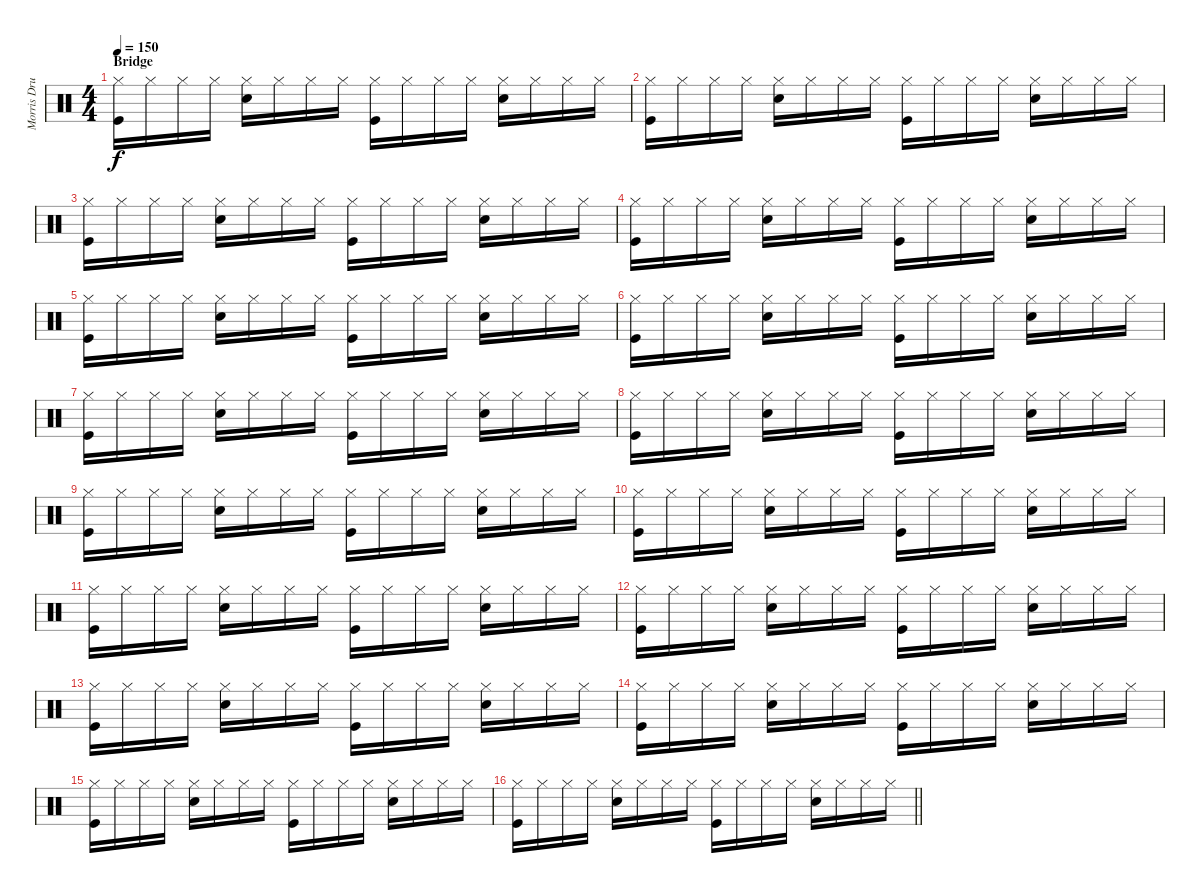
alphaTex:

\track ("Morris Drums" "Morris Dru") {instrument percussion}
\staff {score}
\articulation defaults
\ts (4 4)
\section ("" "Bridge")
\tempo 150
\clef neutral
\ks c
("Hi-Hat (closed)" "Kick (hit)").16{dy f} "Hi-Hat (closed)".16 "Hi-Hat (closed)".16 "Hi-Hat (closed)".16 ("Hi-Hat (closed)" "Snare (hit) 2").16 "Hi-Hat (closed)".16 "Hi-Hat (closed)".16 "Hi-Hat (closed)".16 ("Hi-Hat (closed)" "Kick (hit)").16 "Hi-Hat (closed)".16 "Hi-Hat (closed)".16 "Hi-Hat (closed)".16 ("Hi-Hat (closed)" "Snare (hit) 2").16 "Hi-Hat (closed)".16 "Hi-Hat (closed)".16 "Hi-Hat (closed)".16 |
("Hi-Hat (closed)" "Kick (hit)").16 "Hi-Hat (closed)".16 "Hi-Hat (closed)".16 "Hi-Hat (closed)".16 ("Hi-Hat (closed)" "Snare (hit) 2").16 "Hi-Hat (closed)".16 "Hi-Hat (closed)".16 "Hi-Hat (closed)".16 ("Hi-Hat (closed)" "Kick (hit)").16 "Hi-Hat (closed)".16 "Hi-Hat (closed)".16 "Hi-Hat (closed)".16 ("Hi-Hat (closed)" "Snare (hit) 2").16 "Hi-Hat (closed)".16 "Hi-Hat (closed)".16 "Hi-Hat (closed)".16 |
("Hi-Hat (closed)" "Kick (hit)").16 "Hi-Hat (closed)".16 "Hi-Hat (closed)".16 "Hi-Hat (closed)".16 ("Hi-Hat (closed)" "Snare (hit) 2").16 "Hi-Hat (closed)".16 "Hi-Hat (closed)".16 "Hi-Hat (closed)".16 ("Hi-Hat (closed)" "Kick (hit)").16 "Hi-Hat (closed)".16 "Hi-Hat (closed)".16 "Hi-Hat (closed)".16 ("Hi-Hat (closed)" "Snare (hit) 2").16 "Hi-Hat (closed)".16 "Hi-Hat (closed)".16 "Hi-Hat (closed)".16 |
("Hi-Hat (closed)" "Kick (hit)").16 "Hi-Hat (closed)".16 "Hi-Hat (closed)".16 "Hi-Hat (closed)".16 ("Hi-Hat (closed)" "Snare (hit) 2").16 "Hi-Hat (closed)".16 "Hi-Hat (closed)".16 "Hi-Hat (closed)".16 ("Hi-Hat (closed)" "Kick (hit)").16 "Hi-Hat (closed)".16 "Hi-Hat (closed)".16 "Hi-Hat (closed)".16 ("Hi-Hat (closed)" "Snare (hit) 2").16 "Hi-Hat (closed)".16 "Hi-Hat (closed)".16 "Hi-Hat (closed)".16 |
("Hi-Hat (closed)" "Kick (hit)").16 "Hi-Hat (closed)".16 "Hi-Hat (closed)".16 "Hi-Hat (closed)".16 ("Hi-Hat (closed)" "Snare (hit) 2").16 "Hi-Hat (closed)".16 "Hi-Hat (closed)".16 "Hi-Hat (closed)".16 ("Hi-Hat (closed)" "Kick (hit)").16 "Hi-Hat (closed)".16 "Hi-Hat (closed)".16 "Hi-Hat (closed)".16 ("Hi-Hat (closed)" "Snare (hit) 2").16 "Hi-Hat (closed)".16 "Hi-Hat (closed)".16 "Hi-Hat (closed)".16 |
("Hi-Hat (closed)" "Kick (hit)").16 "Hi-Hat (closed)".16 "Hi-Hat (closed)".16 "Hi-Hat (closed)".16 ("Hi-Hat (closed)" "Snare (hit) 2").16 "Hi-Hat (closed)".16 "Hi-Hat (closed)".16 "Hi-Hat (closed)".16 ("Hi-Hat (closed)" "Kick (hit)").16 "Hi-Hat (closed)".16 "Hi-Hat (closed)".16 "Hi-Hat (closed)".16 ("Hi-Hat (closed)" "Snare (hit) 2").16 "Hi-Hat (closed)".16 "Hi-Hat (closed)".16 "Hi-Hat (closed)".16 |
("Hi-Hat (closed)" "Kick (hit)").16 "Hi-Hat (closed)".16 "Hi-Hat (closed)".16 "Hi-Hat (closed)".16 ("Hi-Hat (closed)" "Snare (hit) 2").16 "Hi-Hat (closed)".16 "Hi-Hat (closed)".16 "Hi-Hat (closed)".16 ("Hi-Hat (closed)" "Kick (hit)").16 "Hi-Hat (closed)".16 "Hi-Hat (closed)".16 "Hi-Hat (closed)".16 ("Hi-Hat (closed)" "Snare (hit) 2").16 "Hi-Hat (closed)".16 "Hi-Hat (closed)".16 "Hi-Hat (closed)".16 |
("Hi-Hat (closed)" "Kick (hit)").16 "Hi-Hat (closed)".16 "Hi-Hat (closed)".16 "Hi-Hat (closed)".16 ("Hi-Hat (closed)" "Snare (hit) 2").16 "Hi-Hat (closed)".16 "Hi-Hat (closed)".16 "Hi-Hat (closed)".16 ("Hi-Hat (closed)" "Kick (hit)").16 "Hi-Hat (closed)".16 "Hi-Hat (closed)".16 "Hi-Hat (closed)".16 ("Hi-Hat (closed)" "Snare (hit) 2").16 "Hi-Hat (closed)".16 "Hi-Hat (closed)".16 "Hi-Hat (closed)".16 |
("Hi-Hat (closed)" "Kick (hit)").16 "Hi-Hat (closed)".16 "Hi-Hat (closed)".16 "Hi-Hat (closed)".16 ("Hi-Hat (closed)" "Snare (hit) 2").16 "Hi-Hat (closed)".16 "Hi-Hat (closed)".16 "Hi-Hat (closed)".16 ("Hi-Hat (closed)" "Kick (hit)").16 "Hi-Hat (closed)".16 "Hi-Hat (closed)".16 "Hi-Hat (closed)".16 ("Hi-Hat (closed)" "Snare (hit) 2").16 "Hi-Hat (closed)".16 "Hi-Hat (closed)".16 "Hi-Hat (closed)".16 |
("Hi-Hat (closed)" "Kick (hit)").16 "Hi-Hat (closed)".16 "Hi-Hat (closed)".16 "Hi-Hat (closed)".16 ("Hi-Hat (closed)" "Snare (hit) 2").16 "Hi-Hat (closed)".16 "Hi-Hat (closed)".16 "Hi-Hat (closed)".16 ("Hi-Hat (closed)" "Kick (hit)").16 "Hi-Hat (closed)".16 "Hi-Hat (closed)".16 "Hi-Hat (closed)".16 ("Hi-Hat (closed)" "Snare (hit) 2").16 "Hi-Hat (closed)".16 "Hi-Hat (closed)".16 "Hi-Hat (closed)".16 |
("Hi-Hat (closed)" "Kick (hit)").16 "Hi-Hat (closed)".16 "Hi-Hat (closed)".16 "Hi-Hat (closed)".16 ("Hi-Hat (closed)" "Snare (hit) 2").16 "Hi-Hat (closed)".16 "Hi-Hat (closed)".16 "Hi-Hat (closed)".16 ("Hi-Hat (closed)" "Kick (hit)").16 "Hi-Hat (closed)".16 "Hi-Hat (closed)".16 "Hi-Hat (closed)".16 ("Hi-Hat (closed)" "Snare (hit) 2").16 "Hi-Hat (closed)".16 "Hi-Hat (closed)".16 "Hi-Hat (closed)".16 |
("Hi-Hat (closed)" "Kick (hit)").16 "Hi-Hat (closed)".16 "Hi-Hat (closed)".16 "Hi-Hat (closed)".16 ("Hi-Hat (closed)" "Snare (hit) 2").16 "Hi-Hat (closed)".16 "Hi-Hat (closed)".16 "Hi-Hat (closed)".16 ("Hi-Hat (closed)" "Kick (hit)").16 "Hi-Hat (closed)".16 "Hi-Hat (closed)".16 "Hi-Hat (closed)".16 ("Hi-Hat (closed)" "Snare (hit) 2").16 "Hi-Hat (closed)".16 "Hi-Hat (closed)".16 "Hi-Hat (closed)".16 |
("Hi-Hat (closed)" "Kick (hit)").16 "Hi-Hat (closed)".16 "Hi-Hat (closed)".16 "Hi-Hat (closed)".16 ("Hi-Hat (closed)" "Snare (hit) 2").16 "Hi-Hat (closed)".16 "Hi-Hat (closed)".16 "Hi-Hat (closed)".16 ("Hi-Hat (closed)" "Kick (hit)").16 "Hi-Hat (closed)".16 "Hi-Hat (closed)".16 "Hi-Hat (closed)".16 ("Hi-Hat (closed)" "Snare (hit) 2").16 "Hi-Hat (closed)".16 "Hi-Hat (closed)".16 "Hi-Hat (closed)".16 |
("Hi-Hat (closed)" "Kick (hit)").16 "Hi-Hat (closed)".16 "Hi-Hat (closed)".16 "Hi-Hat (closed)".16 ("Hi-Hat (closed)" "Snare (hit) 2").16 "Hi-Hat (closed)".16 "Hi-Hat (closed)".16 "Hi-Hat (closed)".16 ("Hi-Hat (closed)" "Kick (hit)").16 "Hi-Hat (closed)".16 "Hi-Hat (closed)".16 "Hi-Hat (closed)".16 ("Hi-Hat (closed)" "Snare (hit) 2").16 "Hi-Hat (closed)".16 "Hi-Hat (closed)".16 "Hi-Hat (closed)".16 |
("Hi-Hat (closed)" "Kick (hit)").16 "Hi-Hat (closed)".16 "Hi-Hat (closed)".16 "Hi-Hat (closed)".16 ("Hi-Hat (closed)" "Snare (hit) 2").16 "Hi-Hat (closed)".16 "Hi-Hat (closed)".16 "Hi-Hat (closed)".16 ("Hi-Hat (closed)" "Kick (hit)").16 "Hi-Hat (closed)".16 "Hi-Hat (closed)".16 "Hi-Hat (closed)".16 ("Hi-Hat (closed)" "Snare (hit) 2").16 "Hi-Hat (closed)".16 "Hi-Hat (closed)".16 "Hi-Hat (closed)".16 |
\barLineRight lightlight
("Hi-Hat (closed)" "Kick (hit)").16 "Hi-Hat (closed)".16 "Hi-Hat (closed)".16 "Hi-Hat (closed)".16 ("Hi-Hat (closed)" "Snare (hit) 2").16 "Hi-Hat (closed)".16 "Hi-Hat (closed)".16 "Hi-Hat (closed)".16 ("Hi-Hat (closed)" "Kick (hit)").16 "Hi-Hat (closed)".16 "Hi-Hat (closed)".16 "Hi-Hat (closed)".16 ("Hi-Hat (closed)" "Snare (hit) 2").16 "Hi-Hat (closed)".16 "Hi-Hat (closed)".16 "Hi-Hat (closed)".16
